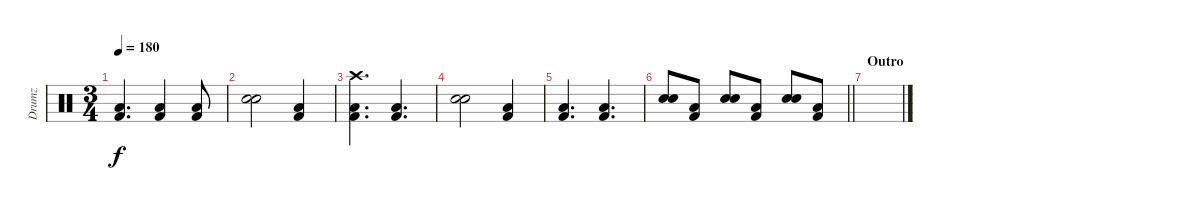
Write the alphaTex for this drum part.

\track ("Drumz" "Drumz") {instrument percussion}
\staff {score}
\articulation defaults
\ts (3 4)
\tempo 180
\clef neutral
\ks c
("Kick (hit) 2" "Low Floor Tom (hit)").4{d dy f} ("Kick (hit) 2" "Low Floor Tom (hit)").4 ("Kick (hit) 2" "Low Floor Tom (hit)").8 |
("Electric Snare (hit)" "Electric Snare (hit)").2 ("Kick (hit) 2" "Low Floor Tom (hit)").4 |
("Kick (hit) 2" "Low Floor Tom (hit)" "Crash high (hit)").4{d} ("Kick (hit) 2" "Low Floor Tom (hit)").4{d} |
("Electric Snare (hit)" "Electric Snare (hit)").2 ("Kick (hit) 2" "Low Floor Tom (hit)").4 |
("Kick (hit) 2" "Low Floor Tom (hit)").4{d} ("Kick (hit) 2" "Low Floor Tom (hit)").4{d} |
\barLineRight lightlight
("Electric Snare (hit)" "Electric Snare (hit)").8 ("Kick (hit) 2" "Low Floor Tom (hit)").8 ("Electric Snare (hit)" "Electric Snare (hit)").8 ("Kick (hit) 2" "Low Floor Tom (hit)").8 ("Electric Snare (hit)" "Electric Snare (hit)").8 ("Kick (hit) 2" "Low Floor Tom (hit)").8 |
\section ("" "Outro")
